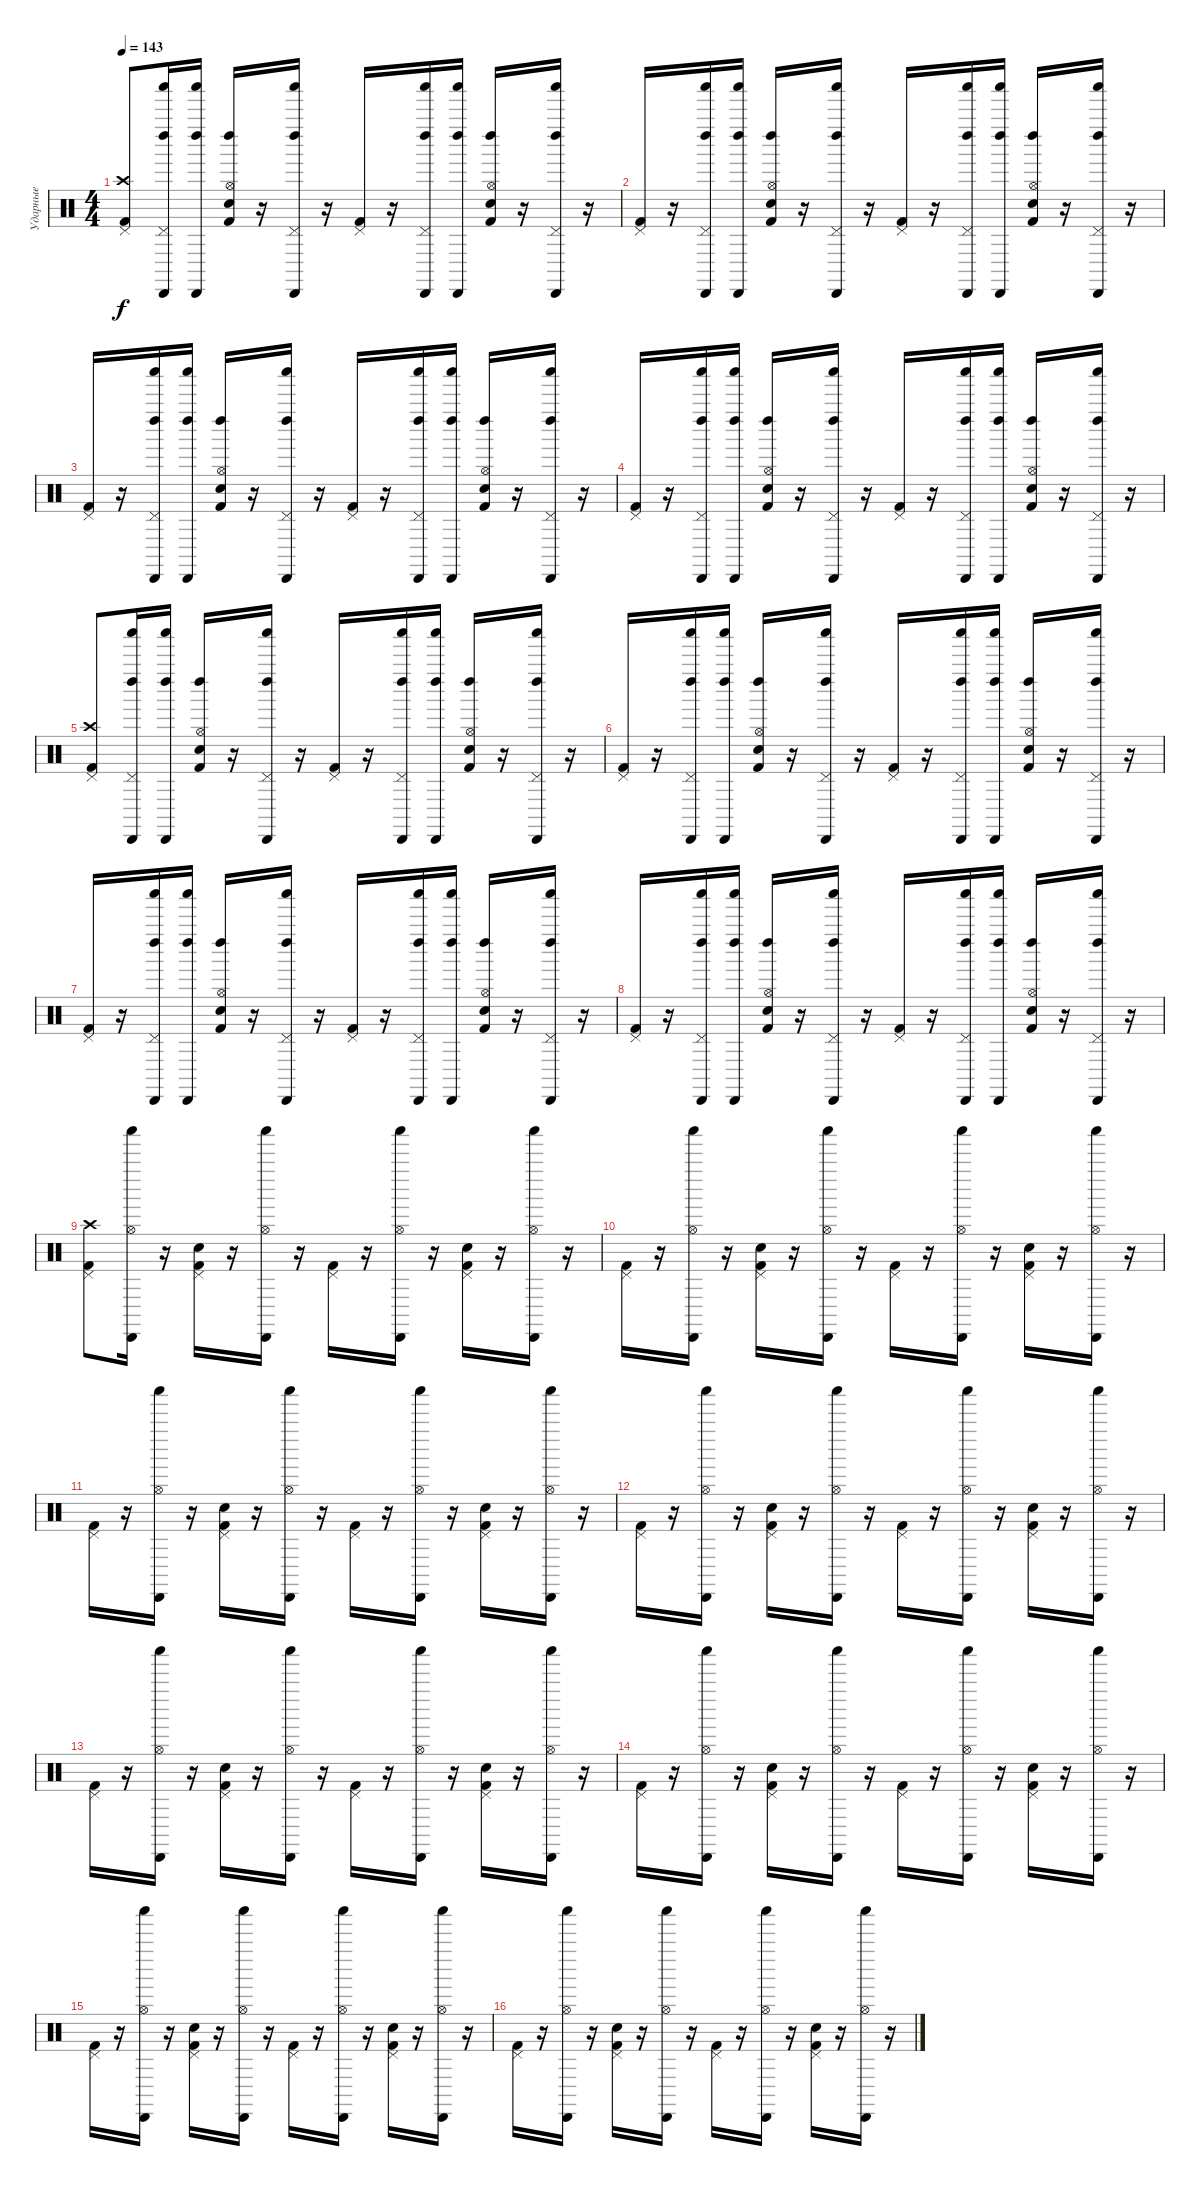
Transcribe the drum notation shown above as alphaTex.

\track ("Ударные" "Ударные") {instrument percussion}
\staff {score}
\articulation defaults
\ts (4 4)
\tempo 143
\clef neutral
\ks c
("Crash high (hit)" "Kick (hit) 2" "Pedal Hi-Hat (hit)").8{dy f} ("Pedal Hi-Hat (hit)" "Left Maraca (hit)" "Shaker (hit)" "Cabasa (hit)").16 ("Left Maraca (hit)" "Shaker (hit)" "Cabasa (hit)").16 ("Kick (hit) 2" "Snare (hit) 2" "Hi-Hat (open)" "Left Maraca (hit)").16 r.16 ("Pedal Hi-Hat (hit)" "Left Maraca (hit)" "Shaker (hit)" "Cabasa (hit)").16 r.16 ("Kick (hit) 2" "Pedal Hi-Hat (hit)").16 r.16 ("Pedal Hi-Hat (hit)" "Left Maraca (hit)" "Shaker (hit)" "Cabasa (hit)").16 ("Left Maraca (hit)" "Shaker (hit)" "Cabasa (hit)").16 ("Snare (hit) 2" "Kick (hit) 2" "Hi-Hat (open)" "Left Maraca (hit)").16 r.16 ("Pedal Hi-Hat (hit)" "Left Maraca (hit)" "Shaker (hit)" "Cabasa (hit)").16 r.16 |
("Kick (hit) 2" "Pedal Hi-Hat (hit)").16 r.16 ("Pedal Hi-Hat (hit)" "Left Maraca (hit)" "Shaker (hit)" "Cabasa (hit)").16 ("Left Maraca (hit)" "Shaker (hit)" "Cabasa (hit)").16 ("Kick (hit) 2" "Snare (hit) 2" "Hi-Hat (open)" "Left Maraca (hit)").16 r.16 ("Pedal Hi-Hat (hit)" "Left Maraca (hit)" "Shaker (hit)" "Cabasa (hit)").16 r.16 ("Kick (hit) 2" "Pedal Hi-Hat (hit)").16 r.16 ("Pedal Hi-Hat (hit)" "Left Maraca (hit)" "Shaker (hit)" "Cabasa (hit)").16 ("Left Maraca (hit)" "Shaker (hit)" "Cabasa (hit)").16 ("Snare (hit) 2" "Kick (hit) 2" "Hi-Hat (open)" "Left Maraca (hit)").16 r.16 ("Pedal Hi-Hat (hit)" "Left Maraca (hit)" "Shaker (hit)" "Cabasa (hit)").16 r.16 |
("Kick (hit) 2" "Pedal Hi-Hat (hit)").16 r.16 ("Pedal Hi-Hat (hit)" "Left Maraca (hit)" "Shaker (hit)" "Cabasa (hit)").16 ("Left Maraca (hit)" "Shaker (hit)" "Cabasa (hit)").16 ("Kick (hit) 2" "Snare (hit) 2" "Hi-Hat (open)" "Left Maraca (hit)").16 r.16 ("Pedal Hi-Hat (hit)" "Left Maraca (hit)" "Shaker (hit)" "Cabasa (hit)").16 r.16 ("Kick (hit) 2" "Pedal Hi-Hat (hit)").16 r.16 ("Pedal Hi-Hat (hit)" "Left Maraca (hit)" "Shaker (hit)" "Cabasa (hit)").16 ("Left Maraca (hit)" "Shaker (hit)" "Cabasa (hit)").16 ("Kick (hit) 2" "Snare (hit) 2" "Hi-Hat (open)" "Left Maraca (hit)").16 r.16 ("Pedal Hi-Hat (hit)" "Left Maraca (hit)" "Shaker (hit)" "Cabasa (hit)").16 r.16 |
("Kick (hit) 2" "Pedal Hi-Hat (hit)").16 r.16 ("Pedal Hi-Hat (hit)" "Left Maraca (hit)" "Shaker (hit)" "Cabasa (hit)").16 ("Left Maraca (hit)" "Shaker (hit)" "Cabasa (hit)").16 ("Snare (hit) 2" "Kick (hit) 2" "Hi-Hat (open)" "Left Maraca (hit)").16 r.16 ("Pedal Hi-Hat (hit)" "Left Maraca (hit)" "Shaker (hit)" "Cabasa (hit)").16 r.16 ("Kick (hit) 2" "Pedal Hi-Hat (hit)").16 r.16 ("Pedal Hi-Hat (hit)" "Left Maraca (hit)" "Shaker (hit)" "Cabasa (hit)").16 ("Left Maraca (hit)" "Shaker (hit)" "Cabasa (hit)").16 ("Snare (hit) 2" "Kick (hit) 2" "Hi-Hat (open)" "Left Maraca (hit)").16 r.16 ("Pedal Hi-Hat (hit)" "Left Maraca (hit)" "Shaker (hit)" "Cabasa (hit)").16 r.16 |
("Crash high (hit)" "Kick (hit) 2" "Pedal Hi-Hat (hit)").8 ("Pedal Hi-Hat (hit)" "Left Maraca (hit)" "Shaker (hit)" "Cabasa (hit)").16 ("Left Maraca (hit)" "Shaker (hit)" "Cabasa (hit)").16 ("Kick (hit) 2" "Snare (hit) 2" "Hi-Hat (open)" "Left Maraca (hit)").16 r.16 ("Pedal Hi-Hat (hit)" "Left Maraca (hit)" "Shaker (hit)" "Cabasa (hit)").16 r.16 ("Kick (hit) 2" "Pedal Hi-Hat (hit)").16 r.16 ("Pedal Hi-Hat (hit)" "Left Maraca (hit)" "Shaker (hit)" "Cabasa (hit)").16 ("Left Maraca (hit)" "Shaker (hit)" "Cabasa (hit)").16 ("Kick (hit) 2" "Snare (hit) 2" "Hi-Hat (open)" "Left Maraca (hit)").16 r.16 ("Pedal Hi-Hat (hit)" "Left Maraca (hit)" "Shaker (hit)" "Cabasa (hit)").16 r.16 |
("Kick (hit) 2" "Pedal Hi-Hat (hit)").16 r.16 ("Pedal Hi-Hat (hit)" "Left Maraca (hit)" "Shaker (hit)" "Cabasa (hit)").16 ("Left Maraca (hit)" "Shaker (hit)" "Cabasa (hit)").16 ("Kick (hit) 2" "Snare (hit) 2" "Hi-Hat (open)" "Left Maraca (hit)").16 r.16 ("Pedal Hi-Hat (hit)" "Left Maraca (hit)" "Shaker (hit)" "Cabasa (hit)").16 r.16 ("Kick (hit) 2" "Pedal Hi-Hat (hit)").16 r.16 ("Pedal Hi-Hat (hit)" "Left Maraca (hit)" "Shaker (hit)" "Cabasa (hit)").16 ("Left Maraca (hit)" "Shaker (hit)" "Cabasa (hit)").16 ("Snare (hit) 2" "Kick (hit) 2" "Hi-Hat (open)" "Left Maraca (hit)").16 r.16 ("Pedal Hi-Hat (hit)" "Left Maraca (hit)" "Shaker (hit)" "Cabasa (hit)").16 r.16 |
("Kick (hit) 2" "Pedal Hi-Hat (hit)").16 r.16 ("Pedal Hi-Hat (hit)" "Left Maraca (hit)" "Shaker (hit)" "Cabasa (hit)").16 ("Left Maraca (hit)" "Shaker (hit)" "Cabasa (hit)").16 ("Snare (hit) 2" "Kick (hit) 2" "Hi-Hat (open)" "Left Maraca (hit)").16 r.16 ("Pedal Hi-Hat (hit)" "Left Maraca (hit)" "Shaker (hit)" "Cabasa (hit)").16 r.16 ("Kick (hit) 2" "Pedal Hi-Hat (hit)").16 r.16 ("Pedal Hi-Hat (hit)" "Left Maraca (hit)" "Shaker (hit)" "Cabasa (hit)").16 ("Left Maraca (hit)" "Shaker (hit)" "Cabasa (hit)").16 ("Kick (hit) 2" "Snare (hit) 2" "Hi-Hat (open)" "Left Maraca (hit)").16 r.16 ("Pedal Hi-Hat (hit)" "Left Maraca (hit)" "Shaker (hit)" "Cabasa (hit)").16 r.16 |
("Kick (hit) 2" "Pedal Hi-Hat (hit)").16 r.16 ("Pedal Hi-Hat (hit)" "Left Maraca (hit)" "Shaker (hit)" "Cabasa (hit)").16 ("Left Maraca (hit)" "Shaker (hit)" "Cabasa (hit)").16 ("Kick (hit) 2" "Snare (hit) 2" "Hi-Hat (open)" "Left Maraca (hit)").16 r.16 ("Pedal Hi-Hat (hit)" "Left Maraca (hit)" "Shaker (hit)" "Cabasa (hit)").16 r.16 ("Kick (hit) 2" "Pedal Hi-Hat (hit)").16 r.16 ("Pedal Hi-Hat (hit)" "Left Maraca (hit)" "Shaker (hit)" "Cabasa (hit)").16 ("Left Maraca (hit)" "Shaker (hit)" "Cabasa (hit)").16 ("Kick (hit) 2" "Snare (hit) 2" "Hi-Hat (open)" "Left Maraca (hit)").16 r.16 ("Pedal Hi-Hat (hit)" "Left Maraca (hit)" "Shaker (hit)" "Cabasa (hit)").16 r.16 |
("Crash high (hit)" "Kick (hit) 2" "Pedal Hi-Hat (hit)").8 ("Hi-Hat (open)" "Shaker (hit)" "Cabasa (hit)").16 r.16 ("Kick (hit) 2" "Snare (hit) 2" "Pedal Hi-Hat (hit)").16 r.16 ("Hi-Hat (open)" "Shaker (hit)" "Cabasa (hit)").16 r.16 ("Kick (hit) 2" "Pedal Hi-Hat (hit)").16 r.16 ("Hi-Hat (open)" "Shaker (hit)" "Cabasa (hit)").16 r.16 ("Snare (hit) 2" "Kick (hit) 2" "Pedal Hi-Hat (hit)").16 r.16 ("Hi-Hat (open)" "Shaker (hit)" "Cabasa (hit)").16 r.16 |
("Kick (hit) 2" "Pedal Hi-Hat (hit)").16 r.16 ("Hi-Hat (open)" "Shaker (hit)" "Cabasa (hit)").16 r.16 ("Snare (hit) 2" "Kick (hit) 2" "Pedal Hi-Hat (hit)").16 r.16 ("Hi-Hat (open)" "Shaker (hit)" "Cabasa (hit)").16 r.16 ("Kick (hit) 2" "Pedal Hi-Hat (hit)").16 r.16 ("Hi-Hat (open)" "Shaker (hit)" "Cabasa (hit)").16 r.16 ("Kick (hit) 2" "Snare (hit) 2" "Pedal Hi-Hat (hit)").16 r.16 ("Hi-Hat (open)" "Shaker (hit)" "Cabasa (hit)").16 r.16 |
("Kick (hit) 2" "Pedal Hi-Hat (hit)").16 r.16 ("Hi-Hat (open)" "Shaker (hit)" "Cabasa (hit)").16 r.16 ("Kick (hit) 2" "Snare (hit) 2" "Pedal Hi-Hat (hit)").16 r.16 ("Hi-Hat (open)" "Shaker (hit)" "Cabasa (hit)").16 r.16 ("Kick (hit) 2" "Pedal Hi-Hat (hit)").16 r.16 ("Hi-Hat (open)" "Shaker (hit)" "Cabasa (hit)").16 r.16 ("Snare (hit) 2" "Kick (hit) 2" "Pedal Hi-Hat (hit)").16 r.16 ("Hi-Hat (open)" "Shaker (hit)" "Cabasa (hit)").16 r.16 |
("Kick (hit) 2" "Pedal Hi-Hat (hit)").16 r.16 ("Hi-Hat (open)" "Shaker (hit)" "Cabasa (hit)").16 r.16 ("Kick (hit) 2" "Snare (hit) 2" "Pedal Hi-Hat (hit)").16 r.16 ("Hi-Hat (open)" "Shaker (hit)" "Cabasa (hit)").16 r.16 ("Kick (hit) 2" "Pedal Hi-Hat (hit)").16 r.16 ("Hi-Hat (open)" "Shaker (hit)" "Cabasa (hit)").16 r.16 ("Snare (hit) 2" "Kick (hit) 2" "Pedal Hi-Hat (hit)").16 r.16 ("Hi-Hat (open)" "Shaker (hit)" "Cabasa (hit)").16 r.16 |
("Kick (hit) 2" "Pedal Hi-Hat (hit)").16 r.16 ("Hi-Hat (open)" "Shaker (hit)" "Cabasa (hit)").16 r.16 ("Kick (hit) 2" "Snare (hit) 2" "Pedal Hi-Hat (hit)").16 r.16 ("Hi-Hat (open)" "Shaker (hit)" "Cabasa (hit)").16 r.16 ("Kick (hit) 2" "Pedal Hi-Hat (hit)").16 r.16 ("Hi-Hat (open)" "Shaker (hit)" "Cabasa (hit)").16 r.16 ("Kick (hit) 2" "Snare (hit) 2" "Pedal Hi-Hat (hit)").16 r.16 ("Hi-Hat (open)" "Shaker (hit)" "Cabasa (hit)").16 r.16 |
("Kick (hit) 2" "Pedal Hi-Hat (hit)").16 r.16 ("Hi-Hat (open)" "Shaker (hit)" "Cabasa (hit)").16 r.16 ("Snare (hit) 2" "Kick (hit) 2" "Pedal Hi-Hat (hit)").16 r.16 ("Hi-Hat (open)" "Shaker (hit)" "Cabasa (hit)").16 r.16 ("Kick (hit) 2" "Pedal Hi-Hat (hit)").16 r.16 ("Hi-Hat (open)" "Shaker (hit)" "Cabasa (hit)").16 r.16 ("Snare (hit) 2" "Kick (hit) 2" "Pedal Hi-Hat (hit)").16 r.16 ("Hi-Hat (open)" "Shaker (hit)" "Cabasa (hit)").16 r.16 |
("Kick (hit) 2" "Pedal Hi-Hat (hit)").16 r.16 ("Hi-Hat (open)" "Shaker (hit)" "Cabasa (hit)").16 r.16 ("Snare (hit) 2" "Kick (hit) 2" "Pedal Hi-Hat (hit)").16 r.16 ("Hi-Hat (open)" "Shaker (hit)" "Cabasa (hit)").16 r.16 ("Kick (hit) 2" "Pedal Hi-Hat (hit)").16 r.16 ("Hi-Hat (open)" "Shaker (hit)" "Cabasa (hit)").16 r.16 ("Kick (hit) 2" "Snare (hit) 2" "Pedal Hi-Hat (hit)").16 r.16 ("Hi-Hat (open)" "Shaker (hit)" "Cabasa (hit)").16 r.16 |
("Kick (hit) 2" "Pedal Hi-Hat (hit)").16 r.16 ("Hi-Hat (open)" "Shaker (hit)" "Cabasa (hit)").16 r.16 ("Kick (hit) 2" "Snare (hit) 2" "Pedal Hi-Hat (hit)").16 r.16 ("Hi-Hat (open)" "Shaker (hit)" "Cabasa (hit)").16 r.16 ("Kick (hit) 2" "Pedal Hi-Hat (hit)").16 r.16 ("Hi-Hat (open)" "Shaker (hit)" "Cabasa (hit)").16 r.16 ("Kick (hit) 2" "Snare (hit) 2" "Pedal Hi-Hat (hit)").16 r.16 ("Hi-Hat (open)" "Shaker (hit)" "Cabasa (hit)").16 r.16
